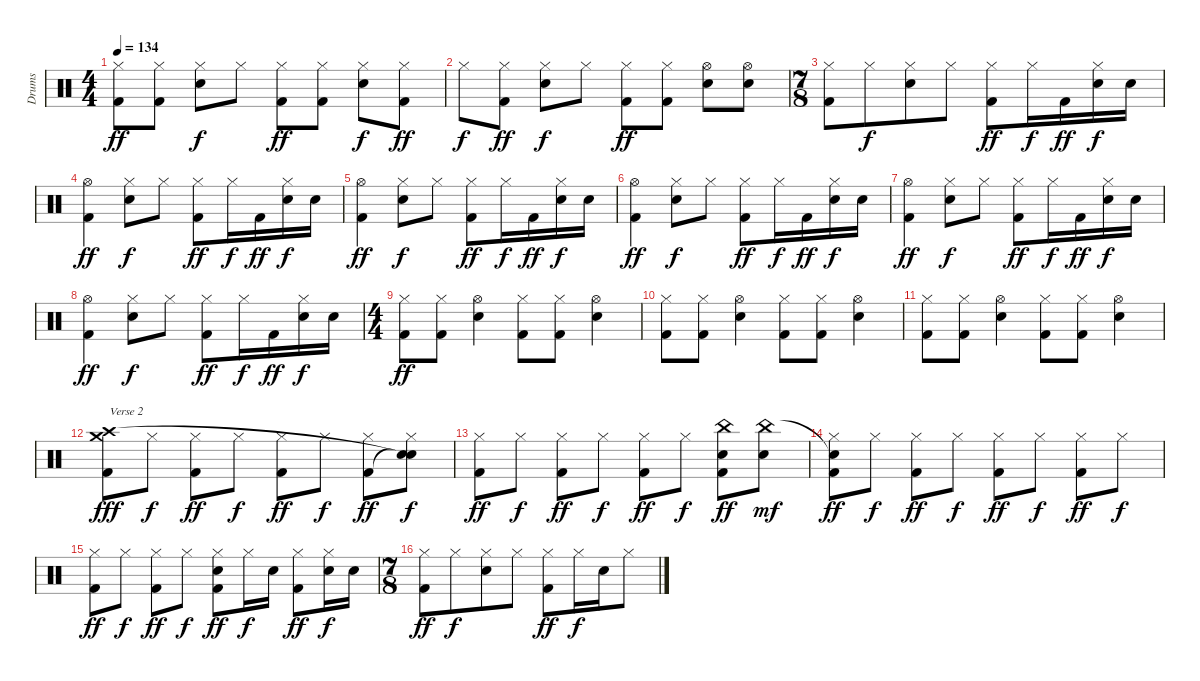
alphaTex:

\track ("Drums" "Drums") {instrument percussion}
\staff {score}
\articulation defaults
\ts (4 4)
\tempo 134
\clef neutral
\ks c
("Hi-Hat (closed)" "Kick (hit) 2").8{dy ff} ("Hi-Hat (closed)" "Kick (hit) 2").8 ("Hi-Hat (closed)" "Snare (hit) 2").8{dy f} "Hi-Hat (closed)".8 ("Hi-Hat (closed)" "Kick (hit) 2").8{dy ff} ("Hi-Hat (closed)" "Kick (hit) 2").8 ("Hi-Hat (closed)" "Snare (hit) 2").8{dy f} ("Hi-Hat (closed)" "Kick (hit) 2").8{dy ff} |
"Hi-Hat (closed)".8{dy f} ("Hi-Hat (closed)" "Kick (hit) 2").8{dy ff} ("Hi-Hat (closed)" "Snare (hit) 2").8{dy f} "Hi-Hat (closed)".8 ("Hi-Hat (closed)" "Kick (hit) 2").8{dy ff} ("Hi-Hat (closed)" "Kick (hit) 2").8 ("Hi-Hat (open)" "Snare (hit) 2").8 ("Hi-Hat (open)" "Snare (hit) 2").8 |
\ts (7 8)
("Hi-Hat (closed)" "Kick (hit) 2").8 "Hi-Hat (closed)".8{dy f} ("Hi-Hat (closed)" "Snare (hit) 2").8 "Hi-Hat (closed)".8 ("Hi-Hat (closed)" "Kick (hit) 2").8{dy ff} "Hi-Hat (closed)".16{dy f} "Kick (hit) 2".16{dy ff} ("Hi-Hat (closed)" "Snare (hit) 2").16{dy f} "Snare (hit) 2".16 |
("Hi-Hat (open)" "Kick (hit) 2").4{dy ff} ("Hi-Hat (closed)" "Snare (hit) 2").8{dy f} "Hi-Hat (closed)".8 ("Hi-Hat (closed)" "Kick (hit) 2").8{dy ff} "Hi-Hat (closed)".16{dy f} "Kick (hit) 2".16{dy ff} ("Hi-Hat (closed)" "Snare (hit) 2").16{dy f} "Snare (hit) 2".16 |
("Hi-Hat (open)" "Kick (hit) 2").4{dy ff} ("Hi-Hat (closed)" "Snare (hit) 2").8{dy f} "Hi-Hat (closed)".8 ("Hi-Hat (closed)" "Kick (hit) 2").8{dy ff} "Hi-Hat (closed)".16{dy f} "Kick (hit) 2".16{dy ff} ("Hi-Hat (closed)" "Snare (hit) 2").16{dy f} "Snare (hit) 2".16 |
("Hi-Hat (open)" "Kick (hit) 2").4{dy ff} ("Hi-Hat (closed)" "Snare (hit) 2").8{dy f} "Hi-Hat (closed)".8 ("Hi-Hat (closed)" "Kick (hit) 2").8{dy ff} "Hi-Hat (closed)".16{dy f} "Kick (hit) 2".16{dy ff} ("Hi-Hat (closed)" "Snare (hit) 2").16{dy f} "Snare (hit) 2".16 |
("Hi-Hat (open)" "Kick (hit) 2").4{dy ff} ("Hi-Hat (closed)" "Snare (hit) 2").8{dy f} "Hi-Hat (closed)".8 ("Hi-Hat (closed)" "Kick (hit) 2").8{dy ff} "Hi-Hat (closed)".16{dy f} "Kick (hit) 2".16{dy ff} ("Hi-Hat (closed)" "Snare (hit) 2").16{dy f} "Snare (hit) 2".16 |
("Hi-Hat (open)" "Kick (hit) 2").4{dy ff} ("Hi-Hat (closed)" "Snare (hit) 2").8{dy f} "Hi-Hat (closed)".8 ("Hi-Hat (closed)" "Kick (hit) 2").8{dy ff} "Hi-Hat (closed)".16{dy f} "Kick (hit) 2".16{dy ff} ("Hi-Hat (closed)" "Snare (hit) 2").16{dy f} "Snare (hit) 2".16 |
\ts (4 4)
("Hi-Hat (closed)" "Kick (hit) 2").8{dy ff} ("Hi-Hat (closed)" "Kick (hit) 2").8 ("Hi-Hat (open)" "Snare (hit) 2").4 ("Hi-Hat (closed)" "Kick (hit) 2").8 ("Hi-Hat (closed)" "Kick (hit) 2").8 ("Hi-Hat (open)" "Snare (hit) 2").4 |
("Hi-Hat (closed)" "Kick (hit) 2").8 ("Hi-Hat (closed)" "Kick (hit) 2").8 ("Hi-Hat (open)" "Snare (hit) 2").4 ("Hi-Hat (closed)" "Kick (hit) 2").8 ("Hi-Hat (closed)" "Kick (hit) 2").8 ("Hi-Hat (open)" "Snare (hit) 2").4 |
("Hi-Hat (closed)" "Kick (hit) 2").8 ("Hi-Hat (closed)" "Kick (hit) 2").8 ("Hi-Hat (open)" "Snare (hit) 2").4 ("Hi-Hat (closed)" "Kick (hit) 2").8 ("Hi-Hat (closed)" "Kick (hit) 2").8 ("Hi-Hat (open)" "Snare (hit) 2").4 |
("Crash medium (hit)" "Kick (hit) 2" "Crash high (hit)").8{txt "Verse 2" dy fff} "Hi-Hat (closed)".8{dy f} ("Hi-Hat (closed)" "Kick (hit) 2").8{dy ff} "Hi-Hat (closed)".8{dy f} ("Hi-Hat (closed)" "Kick (hit) 2").8{dy ff} "Hi-Hat (closed)".8{dy f} ("Hi-Hat (closed)" "Kick (hit) 2").8{dy ff} ("Hi-Hat (closed)" "Snare (hit)"{t} "Snare (hit)"{t}).8{dy f} |
("Hi-Hat (closed)" "Kick (hit) 2").8{dy ff} "Hi-Hat (closed)".8{dy f} ("Hi-Hat (closed)" "Kick (hit) 2").8{dy ff} "Hi-Hat (closed)".8{dy f} ("Hi-Hat (closed)" "Kick (hit) 2").8{dy ff} "Hi-Hat (closed)".8{dy f} ("China (hit)" "Snare (hit) 2" "Kick (hit) 2").8{dy ff} ("China (hit)" "Snare (hit) 2").8{dy mf} |
("Snare (hit)"{t} "Hi-Hat (closed)" "Kick (hit) 2").8{dy ff} "Hi-Hat (closed)".8{dy f} ("Hi-Hat (closed)" "Kick (hit) 2").8{dy ff} "Hi-Hat (closed)".8{dy f} ("Hi-Hat (closed)" "Kick (hit) 2").8{dy ff} "Hi-Hat (closed)".8{dy f} ("Hi-Hat (closed)" "Kick (hit) 2").8{dy ff} "Hi-Hat (closed)".8{dy f} |
("Hi-Hat (closed)" "Kick (hit) 2").8{dy ff} "Hi-Hat (closed)".8{dy f} ("Hi-Hat (closed)" "Kick (hit) 2").8{dy ff} "Hi-Hat (closed)".8{dy f} ("Hi-Hat (closed)" "Snare (hit) 2" "Kick (hit) 2").8{dy ff} "Hi-Hat (closed)".16{dy f} "Snare (hit) 2".16 ("Hi-Hat (closed)" "Kick (hit) 2").8{dy ff} ("Hi-Hat (closed)" "Snare (hit) 2").16{dy f} "Snare (hit) 2".16 |
\ts (7 8)
("Hi-Hat (closed)" "Kick (hit) 2").8{dy ff} "Hi-Hat (closed)".8{dy f} ("Hi-Hat (closed)" "Snare (hit) 2").8 "Hi-Hat (closed)".8 ("Hi-Hat (closed)" "Kick (hit) 2").8{dy ff} "Hi-Hat (closed)".16{dy f} "Snare (hit) 2".16 "Hi-Hat (closed)".8
